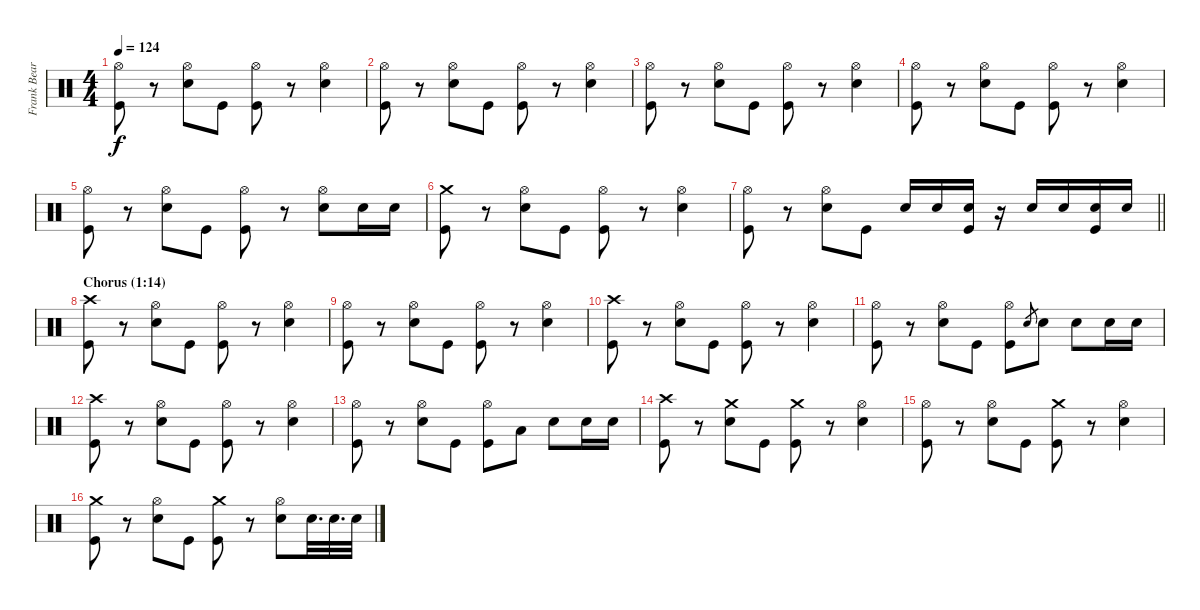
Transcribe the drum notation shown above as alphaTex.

\track ("Frank Beard" "Frank Bear") {instrument percussion}
\staff {score}
\articulation defaults
\ts (4 4)
\tempo 124
\clef neutral
\ks c
("Hi-Hat (open)" "Kick (hit)").8{dy f} r.8 ("Hi-Hat (open)" "Electric Snare (hit)").8 "Kick (hit)".8 ("Hi-Hat (open)" "Kick (hit)").8 r.8 ("Hi-Hat (open)" "Electric Snare (hit)").4 |
("Hi-Hat (open)" "Kick (hit)").8 r.8 ("Hi-Hat (open)" "Electric Snare (hit)").8 "Kick (hit)".8 ("Hi-Hat (open)" "Kick (hit)").8 r.8 ("Hi-Hat (open)" "Electric Snare (hit)").4 |
("Hi-Hat (open)" "Kick (hit)").8 r.8 ("Hi-Hat (open)" "Electric Snare (hit)").8 "Kick (hit)".8 ("Hi-Hat (open)" "Kick (hit)").8 r.8 ("Hi-Hat (open)" "Electric Snare (hit)").4 |
("Hi-Hat (open)" "Kick (hit)").8 r.8 ("Hi-Hat (open)" "Electric Snare (hit)").8 "Kick (hit)".8 ("Hi-Hat (open)" "Kick (hit)").8 r.8 ("Hi-Hat (open)" "Electric Snare (hit)").4 |
("Hi-Hat (open)" "Kick (hit)").8 r.8 ("Hi-Hat (open)" "Electric Snare (hit)").8 "Kick (hit)".8 ("Hi-Hat (open)" "Kick (hit)").8 r.8 ("Hi-Hat (open)" "Electric Snare (hit)").8 "Electric Snare (hit)".16 "Electric Snare (hit)".16 |
("Crash medium (hit)" "Kick (hit)").8 r.8 ("Hi-Hat (open)" "Electric Snare (hit)").8 "Kick (hit)".8 ("Hi-Hat (open)" "Kick (hit)").8 r.8 ("Hi-Hat (open)" "Electric Snare (hit)").4 |
\barLineRight lightlight
("Hi-Hat (open)" "Kick (hit)").8 r.8 ("Hi-Hat (open)" "Electric Snare (hit)").8 "Kick (hit)".8 "Electric Snare (hit)".16 "Electric Snare (hit)".16 ("Electric Snare (hit)" "Kick (hit)").16 r.16 "Electric Snare (hit)".16 "Electric Snare (hit)".16 ("Electric Snare (hit)" "Kick (hit)").16 "Electric Snare (hit)".16 |
\section ("" "Chorus (1:14)")
("Crash high (hit)" "Kick (hit)").8 r.8 ("Hi-Hat (open)" "Electric Snare (hit)").8 "Kick (hit)".8 ("Hi-Hat (open)" "Kick (hit)").8 r.8 ("Hi-Hat (open)" "Electric Snare (hit)").4 |
("Hi-Hat (open)" "Kick (hit)").8 r.8 ("Hi-Hat (open)" "Electric Snare (hit)").8 "Kick (hit)".8 ("Hi-Hat (open)" "Kick (hit)").8 r.8 ("Hi-Hat (open)" "Electric Snare (hit)").4 |
("Crash high (hit)" "Kick (hit)").8 r.8 ("Hi-Hat (open)" "Electric Snare (hit)").8 "Kick (hit)".8 ("Hi-Hat (open)" "Kick (hit)").8 r.8 ("Hi-Hat (open)" "Electric Snare (hit)").4 |
("Hi-Hat (open)" "Kick (hit)").8 r.8 ("Hi-Hat (open)" "Electric Snare (hit)").8 "Kick (hit)".8 ("Hi-Hat (open)" "Kick (hit)").8 "Electric Snare (hit)".8{gr} "Electric Snare (hit)".8 "Electric Snare (hit)".8 "Electric Snare (hit)".16 "Electric Snare (hit)".16 |
("Crash high (hit)" "Kick (hit)").8 r.8 ("Hi-Hat (open)" "Electric Snare (hit)").8 "Kick (hit)".8 ("Hi-Hat (open)" "Kick (hit)").8 r.8 ("Hi-Hat (open)" "Electric Snare (hit)").4 |
("Hi-Hat (open)" "Kick (hit)").8 r.8 ("Hi-Hat (open)" "Electric Snare (hit)").8 "Kick (hit)".8 ("Hi-Hat (open)" "Kick (hit)").8 "Low Floor Tom (hit)".8 "Electric Snare (hit)".8 "Electric Snare (hit)".16 "Electric Snare (hit)".16 |
("Crash high (hit)" "Kick (hit)").8 r.8 ("Crash medium (hit)" "Electric Snare (hit)").8 "Kick (hit)".8 ("Crash medium (hit)" "Kick (hit)").8 r.8 ("Hi-Hat (open)" "Electric Snare (hit)").4 |
("Hi-Hat (open)" "Kick (hit)").8 r.8 ("Hi-Hat (open)" "Electric Snare (hit)").8 "Kick (hit)".8 ("Crash medium (hit)" "Kick (hit)").8 r.8 ("Hi-Hat (open)" "Electric Snare (hit)").4 |
("Crash medium (hit)" "Kick (hit)").8 r.8 ("Hi-Hat (open)" "Electric Snare (hit)").8 "Kick (hit)".8 ("Crash medium (hit)" "Kick (hit)").8 r.8 ("Hi-Hat (open)" "Electric Snare (hit)").8 "Electric Snare (hit)".32{d} "Electric Snare (hit)".32{d} "Electric Snare (hit)".32
